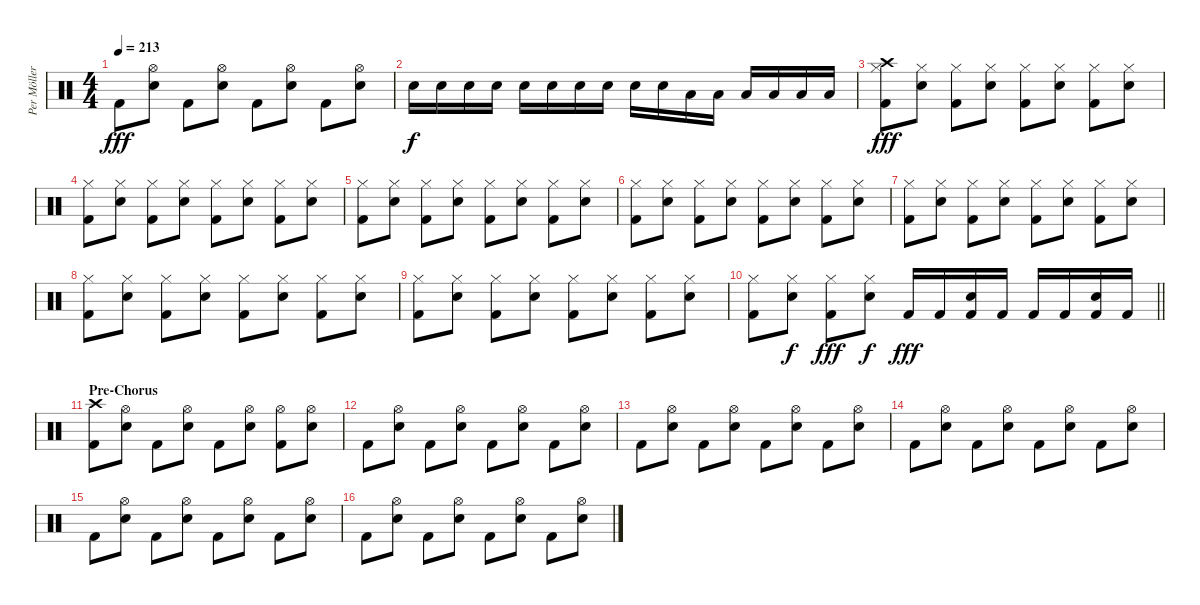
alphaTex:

\track ("Per Möller Jensen" "Per Möller") {instrument percussion}
\staff {score}
\articulation defaults
\ts (4 4)
\tempo 213
\clef neutral
\ks c "Kick (hit) 2".8{dy fff}
("Hi-Hat (open)" "Electric Snare (hit)").8 "Kick (hit) 2".8 ("Hi-Hat (open)" "Electric Snare (hit)").8 "Kick (hit) 2".8 ("Hi-Hat (open)" "Electric Snare (hit)").8 "Kick (hit) 2".8 ("Hi-Hat (open)" "Electric Snare (hit)").8 |
"Electric Snare (hit)".16{dy f} "Electric Snare (hit)".16 "Electric Snare (hit)".16 "Electric Snare (hit)".16 "Electric Snare (hit)".16 "Electric Snare (hit)".16 "Electric Snare (hit)".16 "Electric Snare (hit)".16 "Electric Snare (hit)".16 "Electric Snare (hit)".16 "Low Tom (hit)".16 "Low Tom (hit)".16 "Low Tom (hit)".16 "Low Tom (hit)".16 "Low Tom (hit)".16 "Low Tom (hit)".16 |
("Crash high (hit)" "Hi-Hat (closed)" "Kick (hit) 2").8{dy fff} ("Hi-Hat (closed)" "Electric Snare (hit)").8 ("Hi-Hat (closed)" "Kick (hit) 2").8 ("Hi-Hat (closed)" "Electric Snare (hit)").8 ("Hi-Hat (closed)" "Kick (hit) 2").8 ("Hi-Hat (closed)" "Electric Snare (hit)").8 ("Hi-Hat (closed)" "Kick (hit) 2").8 ("Hi-Hat (closed)" "Electric Snare (hit)").8 |
("Hi-Hat (closed)" "Kick (hit) 2").8 ("Hi-Hat (closed)" "Electric Snare (hit)").8 ("Hi-Hat (closed)" "Kick (hit) 2").8 ("Hi-Hat (closed)" "Electric Snare (hit)").8 ("Hi-Hat (closed)" "Kick (hit) 2").8 ("Hi-Hat (closed)" "Electric Snare (hit)").8 ("Hi-Hat (closed)" "Kick (hit) 2").8 ("Hi-Hat (closed)" "Electric Snare (hit)").8 |
("Hi-Hat (closed)" "Kick (hit) 2").8 ("Hi-Hat (closed)" "Electric Snare (hit)").8 ("Hi-Hat (closed)" "Kick (hit) 2").8 ("Hi-Hat (closed)" "Electric Snare (hit)").8 ("Hi-Hat (closed)" "Kick (hit) 2").8 ("Hi-Hat (closed)" "Electric Snare (hit)").8 ("Hi-Hat (closed)" "Kick (hit) 2").8 ("Hi-Hat (closed)" "Electric Snare (hit)").8 |
("Hi-Hat (closed)" "Kick (hit) 2").8 ("Hi-Hat (closed)" "Electric Snare (hit)").8 ("Hi-Hat (closed)" "Kick (hit) 2").8 ("Hi-Hat (closed)" "Electric Snare (hit)").8 ("Hi-Hat (closed)" "Kick (hit) 2").8 ("Hi-Hat (closed)" "Electric Snare (hit)").8 ("Hi-Hat (closed)" "Kick (hit) 2").8 ("Hi-Hat (closed)" "Electric Snare (hit)").8 |
("Hi-Hat (closed)" "Kick (hit) 2").8 ("Hi-Hat (closed)" "Electric Snare (hit)").8 ("Hi-Hat (closed)" "Kick (hit) 2").8 ("Hi-Hat (closed)" "Electric Snare (hit)").8 ("Hi-Hat (closed)" "Kick (hit) 2").8 ("Hi-Hat (closed)" "Electric Snare (hit)").8 ("Hi-Hat (closed)" "Kick (hit) 2").8 ("Hi-Hat (closed)" "Electric Snare (hit)").8 |
("Hi-Hat (closed)" "Kick (hit) 2").8 ("Hi-Hat (closed)" "Electric Snare (hit)").8 ("Hi-Hat (closed)" "Kick (hit) 2").8 ("Hi-Hat (closed)" "Electric Snare (hit)").8 ("Hi-Hat (closed)" "Kick (hit) 2").8 ("Hi-Hat (closed)" "Electric Snare (hit)").8 ("Hi-Hat (closed)" "Kick (hit) 2").8 ("Hi-Hat (closed)" "Electric Snare (hit)").8 |
("Hi-Hat (closed)" "Kick (hit) 2").8 ("Hi-Hat (closed)" "Electric Snare (hit)").8 ("Hi-Hat (closed)" "Kick (hit) 2").8 ("Hi-Hat (closed)" "Electric Snare (hit)").8 ("Hi-Hat (closed)" "Kick (hit) 2").8 ("Hi-Hat (closed)" "Electric Snare (hit)").8 ("Hi-Hat (closed)" "Kick (hit) 2").8 ("Hi-Hat (closed)" "Electric Snare (hit)").8 |
\barLineRight lightlight
("Hi-Hat (closed)" "Kick (hit) 2").8 ("Hi-Hat (closed)" "Electric Snare (hit)").8{dy f} ("Hi-Hat (closed)" "Kick (hit) 2").8{dy fff} ("Hi-Hat (closed)" "Electric Snare (hit)").8{dy f} "Kick (hit) 2".16{dy fff} "Kick (hit) 2".16 ("Electric Snare (hit)" "Kick (hit) 2").16 "Kick (hit) 2".16 "Kick (hit) 2".16 "Kick (hit) 2".16 ("Electric Snare (hit)" "Kick (hit) 2").16 "Kick (hit) 2".16 |
\section ("" "Pre-Chorus")
("Crash high (hit)" "Kick (hit) 2").8 ("Hi-Hat (open)" "Electric Snare (hit)").8 "Kick (hit) 2".8 ("Hi-Hat (open)" "Electric Snare (hit)").8 "Kick (hit) 2".8 ("Hi-Hat (open)" "Electric Snare (hit)").8 ("Hi-Hat (open)" "Kick (hit) 2").8 ("Hi-Hat (open)" "Electric Snare (hit)").8 |
"Kick (hit) 2".8 ("Hi-Hat (open)" "Electric Snare (hit)").8 "Kick (hit) 2".8 ("Hi-Hat (open)" "Electric Snare (hit)").8 "Kick (hit) 2".8 ("Hi-Hat (open)" "Electric Snare (hit)").8 "Kick (hit) 2".8 ("Hi-Hat (open)" "Electric Snare (hit)").8 |
"Kick (hit) 2".8 ("Hi-Hat (open)" "Electric Snare (hit)").8 "Kick (hit) 2".8 ("Hi-Hat (open)" "Electric Snare (hit)").8 "Kick (hit) 2".8 ("Hi-Hat (open)" "Electric Snare (hit)").8 "Kick (hit) 2".8 ("Hi-Hat (open)" "Electric Snare (hit)").8 |
"Kick (hit) 2".8 ("Hi-Hat (open)" "Electric Snare (hit)").8 "Kick (hit) 2".8 ("Hi-Hat (open)" "Electric Snare (hit)").8 "Kick (hit) 2".8 ("Hi-Hat (open)" "Electric Snare (hit)").8 "Kick (hit) 2".8 ("Hi-Hat (open)" "Electric Snare (hit)").8 |
"Kick (hit) 2".8 ("Hi-Hat (open)" "Electric Snare (hit)").8 "Kick (hit) 2".8 ("Hi-Hat (open)" "Electric Snare (hit)").8 "Kick (hit) 2".8 ("Hi-Hat (open)" "Electric Snare (hit)").8 "Kick (hit) 2".8 ("Hi-Hat (open)" "Electric Snare (hit)").8 |
"Kick (hit) 2".8 ("Hi-Hat (open)" "Electric Snare (hit)").8 "Kick (hit) 2".8 ("Hi-Hat (open)" "Electric Snare (hit)").8 "Kick (hit) 2".8 ("Hi-Hat (open)" "Electric Snare (hit)").8 "Kick (hit) 2".8 ("Hi-Hat (open)" "Electric Snare (hit)").8
